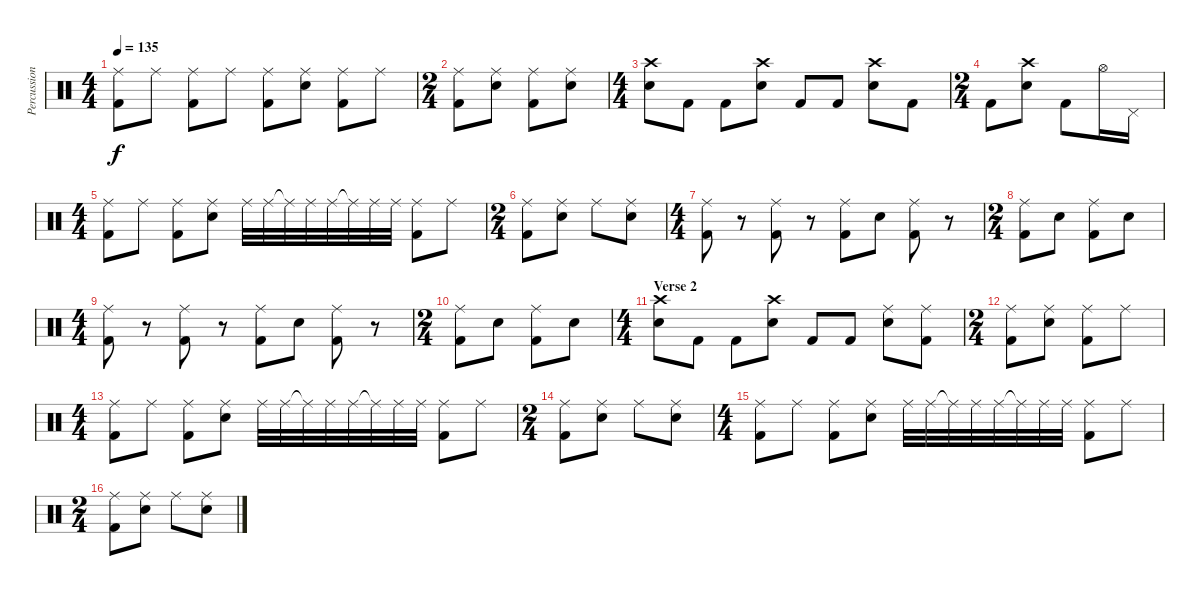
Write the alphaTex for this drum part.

\track ("Percussion" "Percussion") {instrument percussion}
\staff {score}
\articulation defaults
\ts (4 4)
\tempo 135
\clef neutral
\ks c
("Ride (middle)" "Kick (hit) 2").8{dy f} "Ride (middle)".8 ("Ride (middle)" "Kick (hit) 2").8 "Ride (middle)".8 ("Ride (middle)" "Kick (hit) 2").8 ("Ride (middle)" "Electric Snare (hit)").8 ("Ride (middle)" "Kick (hit) 2").8 "Ride (middle)".8 |
\ts (2 4)
("Ride (middle)" "Kick (hit) 2").8 ("Ride (middle)" "Electric Snare (hit)").8 ("Ride (middle)" "Kick (hit) 2").8 ("Ride (middle)" "Electric Snare (hit)").8 |
\ts (4 4)
("Crash high (hit)" "Electric Snare (hit)").8 "Kick (hit) 2".8 "Kick (hit) 2".8 ("Crash high (hit)" "Electric Snare (hit)").8 "Kick (hit) 2".8 "Kick (hit) 2".8 ("Crash high (hit)" "Electric Snare (hit)").8 "Kick (hit) 2".8 |
\ts (2 4)
"Kick (hit) 2".8 ("Crash high (hit)" "Electric Snare (hit)").8 "Kick (hit) 2".8 "Hi-Hat (open)".16 "Pedal Hi-Hat (hit)".16 |
\ts (4 4)
("Ride (middle)" "Kick (hit) 2").8 "Ride (middle)".8 ("Ride (middle)" "Kick (hit) 2").8 ("Ride (middle)" "Electric Snare (hit)").8 "Ride (middle)".32 "Ride (middle)".32 "Ride (middle)"{t}.32 "Ride (middle)".32 "Ride (middle)".32 "Ride (middle)"{t}.32 "Ride (middle)".32 "Ride (middle)".32 ("Ride (middle)" "Kick (hit) 2").8 "Ride (middle)".8 |
\ts (2 4)
("Ride (middle)" "Kick (hit) 2").8 ("Ride (middle)" "Electric Snare (hit)").8 "Ride (middle)".8 ("Ride (middle)" "Electric Snare (hit)").8 |
\ts (4 4)
("Ride (middle)" "Kick (hit) 2").8 r.8 ("Ride (middle)" "Kick (hit) 2").8 r.8 ("Ride (middle)" "Kick (hit) 2").8 "Electric Snare (hit)".8 ("Ride (middle)" "Kick (hit) 2").8 r.8 |
\ts (2 4)
("Ride (middle)" "Kick (hit) 2").8 "Electric Snare (hit)".8 ("Ride (middle)" "Kick (hit) 2").8 "Electric Snare (hit)".8 |
\ts (4 4)
("Ride (middle)" "Kick (hit) 2").8 r.8 ("Ride (middle)" "Kick (hit) 2").8 r.8 ("Ride (middle)" "Kick (hit) 2").8 "Electric Snare (hit)".8 ("Ride (middle)" "Kick (hit) 2").8 r.8 |
\ts (2 4)
("Ride (middle)" "Kick (hit) 2").8 "Electric Snare (hit)".8 ("Ride (middle)" "Kick (hit) 2").8 "Electric Snare (hit)".8 |
\ts (4 4)
\section ("" "Verse 2")
("Crash high (hit)" "Electric Snare (hit)").8 "Kick (hit) 2".8 "Kick (hit) 2".8 ("Crash high (hit)" "Electric Snare (hit)").8 "Kick (hit) 2".8 "Kick (hit) 2".8 ("Ride (middle)" "Electric Snare (hit)").8 ("Ride (middle)" "Kick (hit) 2").8 |
\ts (2 4)
("Ride (middle)" "Kick (hit) 2").8 ("Ride (middle)" "Electric Snare (hit)").8 ("Ride (middle)" "Kick (hit) 2").8 "Ride (middle)".8 |
\ts (4 4)
("Ride (middle)" "Kick (hit) 2").8 "Ride (middle)".8 ("Ride (middle)" "Kick (hit) 2").8 ("Ride (middle)" "Electric Snare (hit)").8 "Ride (middle)".32 "Ride (middle)".32 "Ride (middle)"{t}.32 "Ride (middle)".32 "Ride (middle)".32 "Ride (middle)"{t}.32 "Ride (middle)".32 "Ride (middle)".32 ("Ride (middle)" "Kick (hit) 2").8 "Ride (middle)".8 |
\ts (2 4)
("Ride (middle)" "Kick (hit) 2").8 ("Ride (middle)" "Electric Snare (hit)").8 "Ride (middle)".8 ("Ride (middle)" "Electric Snare (hit)").8 |
\ts (4 4)
("Ride (middle)" "Kick (hit) 2").8 "Ride (middle)".8 ("Ride (middle)" "Kick (hit) 2").8 ("Ride (middle)" "Electric Snare (hit)").8 "Ride (middle)".32 "Ride (middle)".32 "Ride (middle)"{t}.32 "Ride (middle)".32 "Ride (middle)".32 "Ride (middle)"{t}.32 "Ride (middle)".32 "Ride (middle)".32 ("Ride (middle)" "Kick (hit) 2").8 "Ride (middle)".8 |
\ts (2 4)
("Ride (middle)" "Kick (hit) 2").8 ("Ride (middle)" "Electric Snare (hit)").8 "Ride (middle)".8 ("Ride (middle)" "Electric Snare (hit)").8
